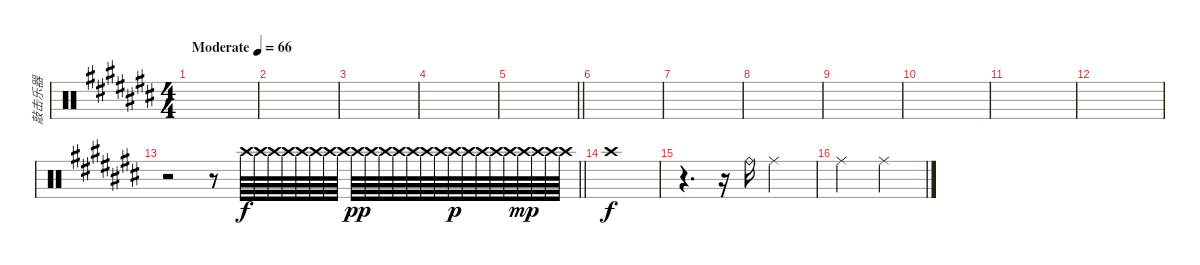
\track ("敲击乐器" "敲击乐器") {instrument percussion}
\staff {score}
\articulation defaults
\ts (4 4)
\section ("" "")
\tempo (66 "Moderate")
\clef neutral
\ks c#
|
|
|
|
\barLineRight lightlight
|
|
|
|
|
|
|
|
\barLineRight lightlight
r.2 r.8 "Crash high (hit)".64 "Crash high (hit)".64 "Crash high (hit)".64 "Crash high (hit)".64 "Crash high (hit)".64 "Crash high (hit)".64 "Crash high (hit)".64 "Crash high (hit)".64 "Crash high (hit)".64{dy pp} "Crash high (hit)".64 "Crash high (hit)".64 "Crash high (hit)".64 "Crash high (hit)".64 "Crash high (hit)".64 "Crash high (hit)".64 "Crash high (hit)".64{dy p} "Crash high (hit)".64 "Crash high (hit)".64 "Crash high (hit)".64 "Crash high (hit)".64 "Crash high (hit)".64{dy mp} "Crash high (hit)".64 "Crash high (hit)".64 "Crash high (hit)".64 |
"Crash high (hit)".1{dy f} |
r.4{d} r.16 "Ride (bell)".16 "Ride (middle)".2 |
"Ride (middle)".2 "Ride (middle)".2
